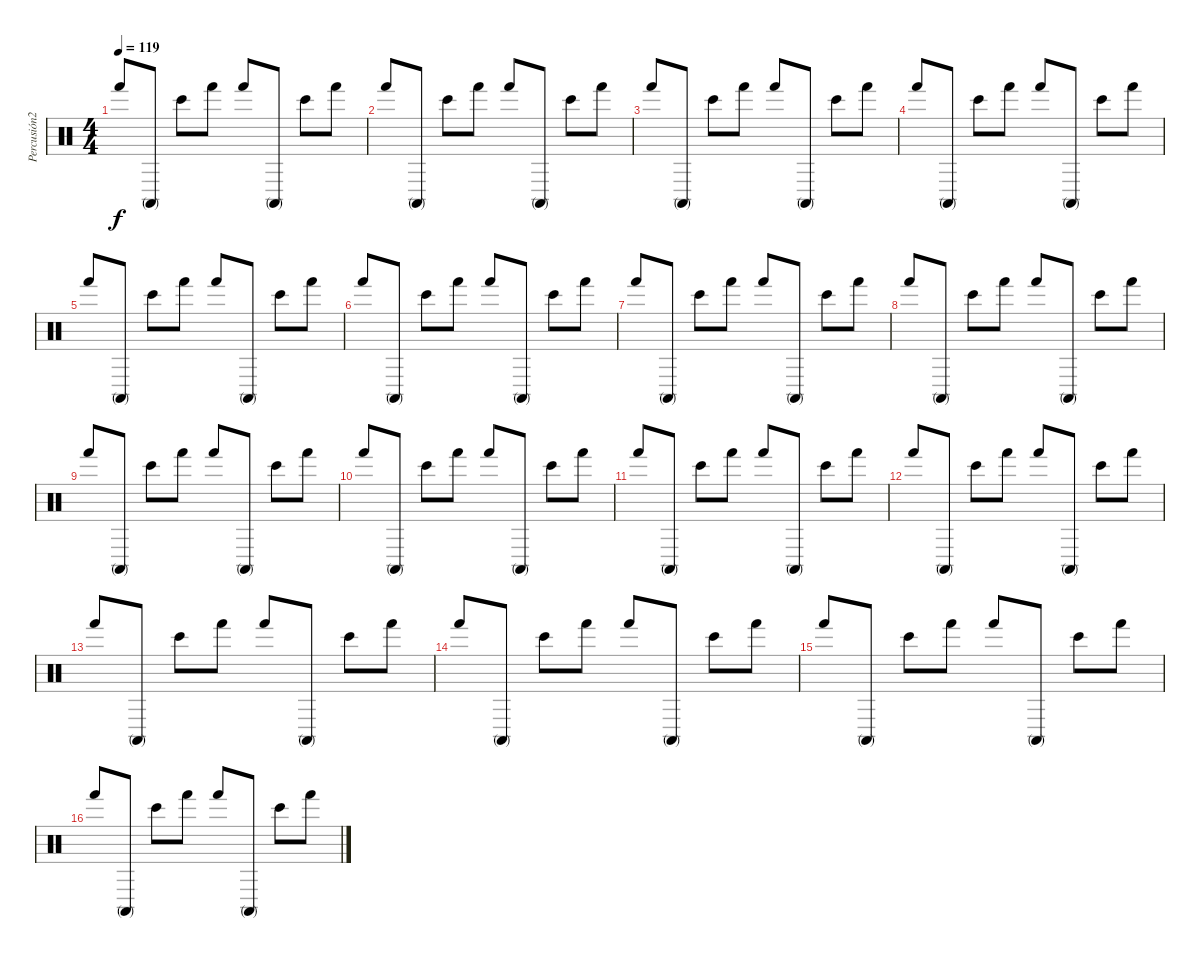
\track ("Percusión2" "Percusión2") {instrument percussion}
\staff {score}
\articulation defaults
\ts (4 4)
\tempo 119
\clef neutral
\ks c "Hand (hit)".8{dy f} "Conga high (mute)".8 "Bongo High (hit)".8 "Hand (hit)".8 "Hand (hit)".8 "Conga high (mute)".8 "Bongo High (hit)".8 "Hand (hit)".8
|
"Hand (hit)".8 "Conga high (mute)".8 "Bongo High (hit)".8 "Hand (hit)".8 "Hand (hit)".8 "Conga high (mute)".8 "Bongo High (hit)".8 "Hand (hit)".8 |
"Hand (hit)".8 "Conga high (mute)".8 "Bongo High (hit)".8 "Hand (hit)".8 "Hand (hit)".8 "Conga high (mute)".8 "Bongo High (hit)".8 "Hand (hit)".8 |
"Hand (hit)".8 "Conga high (mute)".8 "Bongo High (hit)".8 "Hand (hit)".8 "Hand (hit)".8 "Conga high (mute)".8 "Bongo High (hit)".8 "Hand (hit)".8 |
"Hand (hit)".8 "Conga high (mute)".8 "Bongo High (hit)".8 "Hand (hit)".8 "Hand (hit)".8 "Conga high (mute)".8 "Bongo High (hit)".8 "Hand (hit)".8 |
"Hand (hit)".8 "Conga high (mute)".8 "Bongo High (hit)".8 "Hand (hit)".8 "Hand (hit)".8 "Conga high (mute)".8 "Bongo High (hit)".8 "Hand (hit)".8 |
"Hand (hit)".8 "Conga high (mute)".8 "Bongo High (hit)".8 "Hand (hit)".8 "Hand (hit)".8 "Conga high (mute)".8 "Bongo High (hit)".8 "Hand (hit)".8 |
"Hand (hit)".8 "Conga high (mute)".8 "Bongo High (hit)".8 "Hand (hit)".8 "Hand (hit)".8 "Conga high (mute)".8 "Bongo High (hit)".8 "Hand (hit)".8 |
"Hand (hit)".8 "Conga high (mute)".8 "Bongo High (hit)".8 "Hand (hit)".8 "Hand (hit)".8 "Conga high (mute)".8 "Bongo High (hit)".8 "Hand (hit)".8 |
"Hand (hit)".8 "Conga high (mute)".8 "Bongo High (hit)".8 "Hand (hit)".8 "Hand (hit)".8 "Conga high (mute)".8 "Bongo High (hit)".8 "Hand (hit)".8 |
"Hand (hit)".8 "Conga high (mute)".8 "Bongo High (hit)".8 "Hand (hit)".8 "Hand (hit)".8 "Conga high (mute)".8 "Bongo High (hit)".8 "Hand (hit)".8 |
"Hand (hit)".8 "Conga high (mute)".8 "Bongo High (hit)".8 "Hand (hit)".8 "Hand (hit)".8 "Conga high (mute)".8 "Bongo High (hit)".8 "Hand (hit)".8 |
"Hand (hit)".8 "Conga high (mute)".8 "Bongo High (hit)".8 "Hand (hit)".8 "Hand (hit)".8 "Conga high (mute)".8 "Bongo High (hit)".8 "Hand (hit)".8 |
"Hand (hit)".8 "Conga high (mute)".8 "Bongo High (hit)".8 "Hand (hit)".8 "Hand (hit)".8 "Conga high (mute)".8 "Bongo High (hit)".8 "Hand (hit)".8 |
"Hand (hit)".8 "Conga high (mute)".8 "Bongo High (hit)".8 "Hand (hit)".8 "Hand (hit)".8 "Conga high (mute)".8 "Bongo High (hit)".8 "Hand (hit)".8 |
"Hand (hit)".8 "Conga high (mute)".8 "Bongo High (hit)".8 "Hand (hit)".8 "Hand (hit)".8 "Conga high (mute)".8 "Bongo High (hit)".8 "Hand (hit)".8
